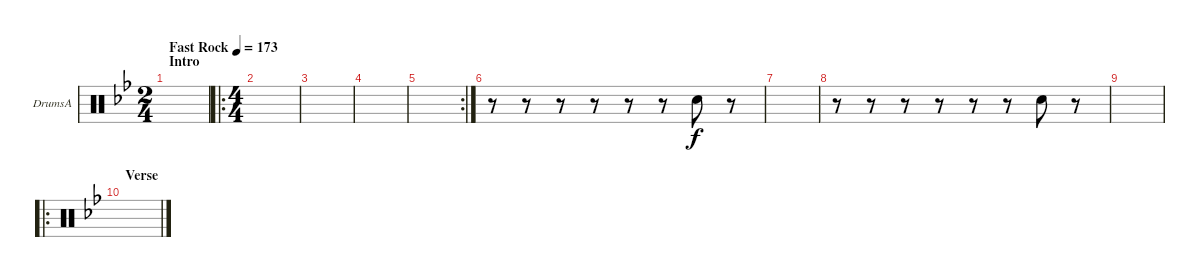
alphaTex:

\defaultSystemsLayout 4
\bracketExtendMode groupsimilarinstruments
\firstSystemTrackNameOrientation horizontal
\otherSystemsTrackNameOrientation horizontal
\track ("Drumkit" "DrumsA") {instrument percussion}
\staff {score}
\articulation defaults
\ts (2 4)
\section ("" "Intro")
\tempo (173 "Fast Rock")
\clef neutral
\ks bb
|
\ro
\ts (4 4)
|
|
|
\rc 2
|
r.8 r.8 r.8 r.8 r.8 r.8 "Snare (hit) 2".8 r.8 |
|
r.8 r.8 r.8 r.8 r.8 r.8 "Snare (hit) 2".8 r.8 |
|
\ro
\section ("" "Verse")
